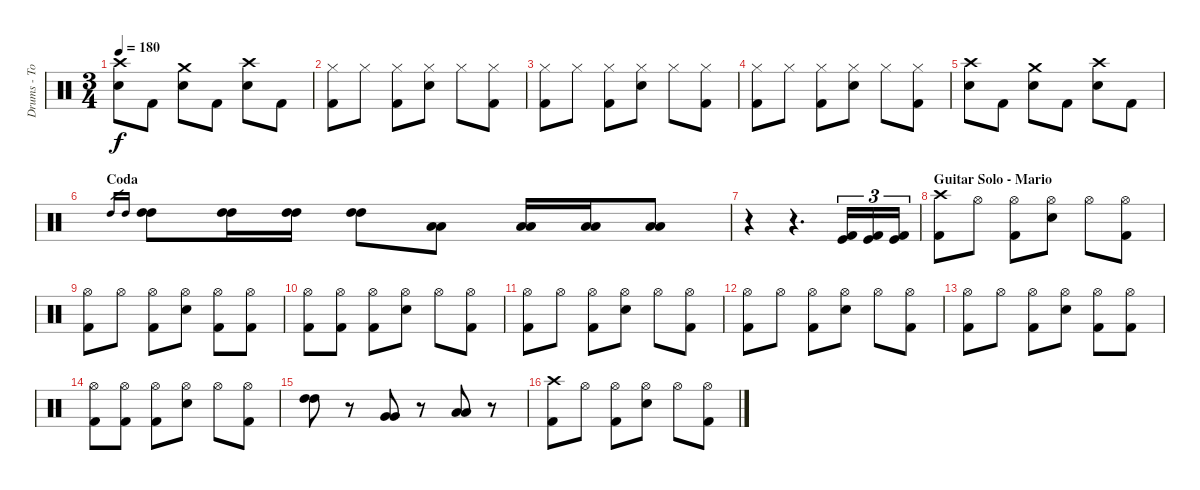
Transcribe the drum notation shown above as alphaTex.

\track ("Drums - Tomas" "Drums - To") {instrument percussion}
\staff {score}
\articulation defaults
\ts (3 4)
\tempo 180
\clef neutral
\ks c
("Crash high (hit)" "Electric Snare (hit)").8{dy f} "Kick (hit) 2".8{volume 0} ("Crash medium (hit)" "Electric Snare (hit)").8{volume 16} "Kick (hit) 2".8{volume 0} ("Crash high (hit)" "Electric Snare (hit)").8{volume 16} "Kick (hit) 2".8{volume 0} |
("Hi-Hat (closed)" "Kick (hit) 2").8{volume 16} "Hi-Hat (closed)".8 ("Hi-Hat (closed)" "Kick (hit) 2").8 ("Hi-Hat (closed)" "Electric Snare (hit)").8 "Hi-Hat (closed)".8 ("Hi-Hat (closed)" "Kick (hit) 2").8 |
("Hi-Hat (closed)" "Kick (hit) 2").8 "Hi-Hat (closed)".8 ("Hi-Hat (closed)" "Kick (hit) 2").8 ("Hi-Hat (closed)" "Electric Snare (hit)").8 "Hi-Hat (closed)".8 ("Hi-Hat (closed)" "Kick (hit) 2").8 |
("Hi-Hat (closed)" "Kick (hit) 2").8 "Hi-Hat (closed)".8 ("Hi-Hat (closed)" "Kick (hit) 2").8 ("Hi-Hat (closed)" "Electric Snare (hit)").8 "Hi-Hat (closed)".8 ("Hi-Hat (closed)" "Kick (hit) 2").8 |
("Crash high (hit)" "Electric Snare (hit)").8 "Kick (hit) 2".8 ("Crash medium (hit)" "Electric Snare (hit)").8{volume 16} "Kick (hit) 2".8 ("Crash high (hit)" "Electric Snare (hit)").8{volume 16} "Kick (hit) 2".8 |
\section ("" "Coda")
"High Tom (hit)".16{gr} "High Tom (hit)".16{gr} ("High Tom (hit)" "High Tom (hit)").8{volume 16} ("High Tom (hit)" "High Tom (hit)").16 ("High Tom (hit)" "High Tom (hit)").16 ("High Tom (hit)" "High Tom (hit)").8 ("Low Tom (hit)" "Low Tom (hit)").8 ("Low Tom (hit)" "Low Tom (hit)").16 ("Low Tom (hit)" "Low Tom (hit)").16 ("Low Tom (hit)" "Low Tom (hit)").8 |
r.4 r.4{d} ("Kick (hit)" "Kick (hit) 2").16{tu (3 2)} ("Kick (hit)" "Kick (hit) 2").16{tu (3 2)} ("Kick (hit)" "Kick (hit) 2").16{tu (3 2)} |
\section ("" "Guitar Solo - Mario")
("Crash high (hit)" "Kick (hit) 2").8 "Hi-Hat (open)".8 ("Hi-Hat (open)" "Kick (hit) 2").8 ("Hi-Hat (open)" "Electric Snare (hit)").8 "Hi-Hat (open)".8 ("Hi-Hat (open)" "Kick (hit) 2").8 |
("Hi-Hat (open)" "Kick (hit) 2").8 "Hi-Hat (open)".8 ("Hi-Hat (open)" "Kick (hit) 2").8 ("Hi-Hat (open)" "Electric Snare (hit)").8 ("Hi-Hat (open)" "Kick (hit) 2").8 ("Hi-Hat (open)" "Kick (hit) 2").8 |
("Hi-Hat (open)" "Kick (hit) 2").8 ("Hi-Hat (open)" "Kick (hit) 2").8 ("Hi-Hat (open)" "Kick (hit) 2").8 ("Hi-Hat (open)" "Electric Snare (hit)").8 "Hi-Hat (open)".8 ("Hi-Hat (open)" "Kick (hit) 2").8 |
("Hi-Hat (open)" "Kick (hit) 2").8 "Hi-Hat (open)".8 ("Hi-Hat (open)" "Kick (hit) 2").8 ("Hi-Hat (open)" "Electric Snare (hit)").8 "Hi-Hat (open)".8 ("Hi-Hat (open)" "Kick (hit) 2").8 |
("Hi-Hat (open)" "Kick (hit) 2").8 "Hi-Hat (open)".8 ("Hi-Hat (open)" "Kick (hit) 2").8 ("Hi-Hat (open)" "Electric Snare (hit)").8 "Hi-Hat (open)".8 ("Hi-Hat (open)" "Kick (hit) 2").8 |
("Hi-Hat (open)" "Kick (hit) 2").8 "Hi-Hat (open)".8 ("Hi-Hat (open)" "Kick (hit) 2").8 ("Hi-Hat (open)" "Electric Snare (hit)").8 ("Hi-Hat (open)" "Kick (hit) 2").8 ("Hi-Hat (open)" "Kick (hit) 2").8 |
("Hi-Hat (open)" "Kick (hit) 2").8 ("Hi-Hat (open)" "Kick (hit) 2").8 ("Hi-Hat (open)" "Kick (hit) 2").8 ("Hi-Hat (open)" "Electric Snare (hit)").8 "Hi-Hat (open)".8 ("Hi-Hat (open)" "Kick (hit) 2").8 |
("High Tom (hit)" "High Tom (hit)").8 r.8 ("Very Low Tom (hit)" "Very Low Tom (hit)").8 r.8 ("Low Tom (hit)" "Low Tom (hit)").8 r.8 |
("Crash high (hit)" "Kick (hit) 2").8 "Hi-Hat (open)".8 ("Hi-Hat (open)" "Kick (hit) 2").8 ("Hi-Hat (open)" "Electric Snare (hit)").8 "Hi-Hat (open)".8 ("Hi-Hat (open)" "Kick (hit) 2").8
